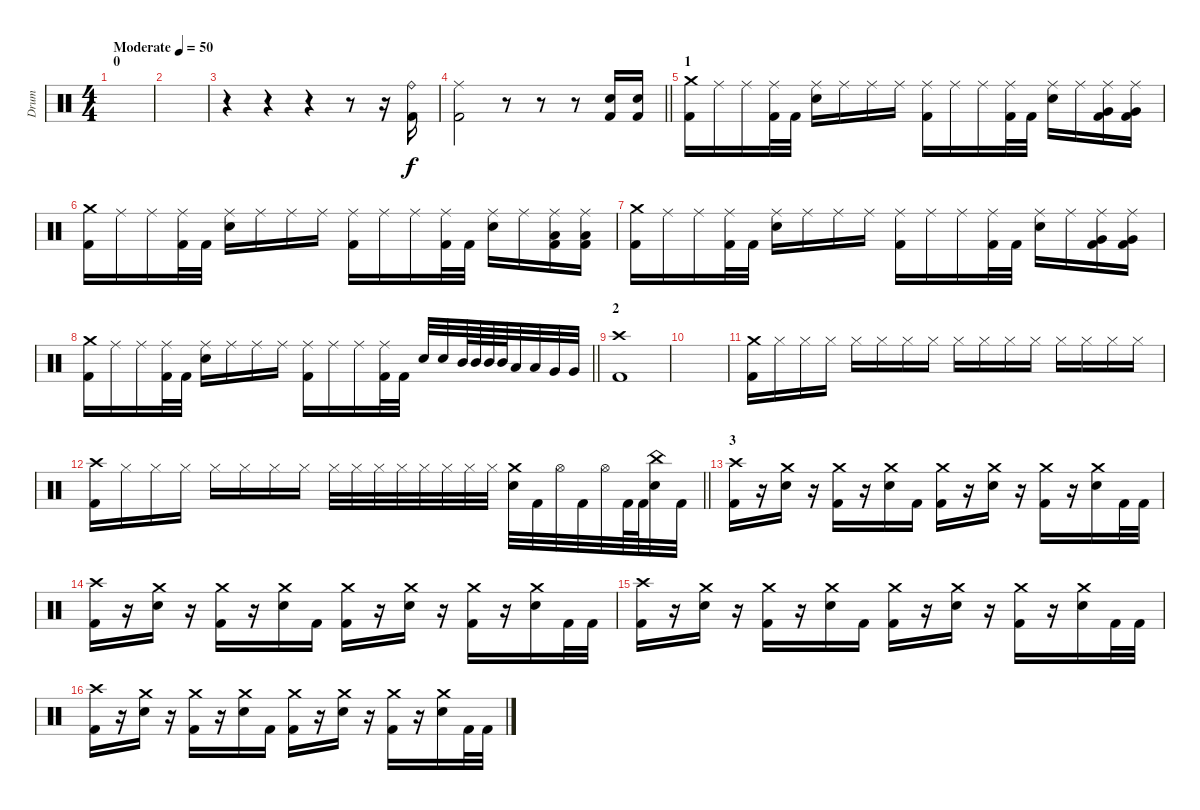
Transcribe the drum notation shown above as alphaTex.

\track ("Drum " "Drum ") {instrument percussion}
\staff {score}
\articulation defaults
\ts (4 4)
\section ("" "0")
\tempo (50 "Moderate")
\clef neutral
\ks c
|
|
r.4 r.4 r.4 r.8 r.16 ("Ride (bell)" "Kick (hit) 2").16 |
\barLineRight lightlight
("Ride (middle)" "Kick (hit) 2").2 r.8 r.8 r.8 ("Electric Snare (hit)" "Kick (hit) 2").16 ("Electric Snare (hit)" "Kick (hit) 2").16 |
\section ("" "1")
("Crash medium (hit)" "Kick (hit) 2").16 "Ride (middle)".16 "Ride (middle)".16 ("Ride (middle)" "Kick (hit) 2").32 "Kick (hit) 2".32 ("Ride (middle)" "Electric Snare (hit)").16 "Ride (middle)".16 "Ride (middle)".16 "Ride (middle)".16 ("Ride (middle)" "Kick (hit) 2").16 "Ride (middle)".16 "Ride (middle)".16 ("Ride (middle)" "Kick (hit) 2").32 "Kick (hit) 2".32 ("Ride (middle)" "Electric Snare (hit)").16 "Ride (middle)".16 ("Ride (middle)" "Very Low Tom (hit)" "Kick (hit) 2").16 ("Ride (middle)" "Very Low Tom (hit)" "Kick (hit) 2").16 |
("Crash medium (hit)" "Kick (hit) 2").16 "Ride (middle)".16 "Ride (middle)".16 ("Ride (middle)" "Kick (hit) 2").32 "Kick (hit) 2".32 ("Ride (middle)" "Electric Snare (hit)").16 "Ride (middle)".16 "Ride (middle)".16 "Ride (middle)".16 ("Ride (middle)" "Kick (hit) 2").16 "Ride (middle)".16 "Ride (middle)".16 ("Ride (middle)" "Kick (hit) 2").32 "Kick (hit) 2".32 ("Ride (middle)" "Electric Snare (hit)").16 "Ride (middle)".16 ("Ride (middle)" "Low Floor Tom (hit)" "Kick (hit) 2").16 ("Ride (middle)" "Low Floor Tom (hit)" "Kick (hit) 2").16 |
("Crash medium (hit)" "Kick (hit) 2").16 "Ride (middle)".16 "Ride (middle)".16 ("Ride (middle)" "Kick (hit) 2").32 "Kick (hit) 2".32 ("Ride (middle)" "Electric Snare (hit)").16 "Ride (middle)".16 "Ride (middle)".16 "Ride (middle)".16 ("Ride (middle)" "Kick (hit) 2").16 "Ride (middle)".16 "Ride (middle)".16 ("Ride (middle)" "Kick (hit) 2").32 "Kick (hit) 2".32 ("Ride (middle)" "Electric Snare (hit)").16 "Ride (middle)".16 ("Ride (middle)" "Very Low Tom (hit)" "Kick (hit) 2").16 ("Ride (middle)" "Very Low Tom (hit)" "Kick (hit) 2").16 |
\barLineRight lightlight
("Crash medium (hit)" "Kick (hit) 2").16 "Ride (middle)".16 "Ride (middle)".16 ("Ride (middle)" "Kick (hit) 2").32 "Kick (hit) 2".32 ("Ride (middle)" "Electric Snare (hit)").16 "Ride (middle)".16 "Ride (middle)".16 "Ride (middle)".16 ("Ride (middle)" "Kick (hit) 2").16 "Ride (middle)".16 "Ride (middle)".16 ("Ride (middle)" "Kick (hit) 2").32 "Kick (hit) 2".32 "Electric Snare (hit)".32 "Electric Snare (hit)".32 "Mid Tom (hit)".64 "Mid Tom (hit)".64 "Mid Tom (hit)".64 "Mid Tom (hit)".64 "Low Tom (hit)".32 "Low Tom (hit)".32 "Very Low Tom (hit)".32 "Very Low Tom (hit)".32 |
\section ("" "2")
("Crash high (hit)" "Kick (hit) 2").1 |
|
("Crash medium (hit)" "Kick (hit) 2").16 "Hi-Hat (closed)".16 "Hi-Hat (closed)".16 "Hi-Hat (closed)".16 "Hi-Hat (closed)".16 "Hi-Hat (closed)".16 "Hi-Hat (closed)".16 "Hi-Hat (closed)".16 "Hi-Hat (closed)".16 "Hi-Hat (closed)".16 "Hi-Hat (closed)".16 "Hi-Hat (closed)".16 "Hi-Hat (closed)".16 "Hi-Hat (closed)".16 "Hi-Hat (closed)".16 "Hi-Hat (closed)".16 |
\barLineRight lightlight
("Crash high (hit)" "Kick (hit) 2").16 "Hi-Hat (closed)".16 "Hi-Hat (closed)".16 "Hi-Hat (closed)".16 "Hi-Hat (closed)".16 "Hi-Hat (closed)".16 "Hi-Hat (closed)".16 "Hi-Hat (closed)".16 "Hi-Hat (closed)".32 "Hi-Hat (closed)".32 "Hi-Hat (closed)".32 "Hi-Hat (closed)".32 "Hi-Hat (closed)".32 "Hi-Hat (closed)".32 "Hi-Hat (closed)".32 "Hi-Hat (closed)".32 ("Crash medium (hit)" "Electric Snare (hit)").32 "Kick (hit) 2".32 "Hi-Hat (open)".32 "Kick (hit) 2".32 "Hi-Hat (open)".32 "Kick (hit) 2".64 "Kick (hit) 2".64 ("China (hit)" "Electric Snare (hit)").32 "Kick (hit) 2".32 |
\section ("" "3")
("Crash high (hit)" "Kick (hit) 2").16 r.16 ("Crash medium (hit)" "Electric Snare (hit)").16 r.16 ("Crash medium (hit)" "Kick (hit) 2").16 r.16 ("Crash medium (hit)" "Electric Snare (hit)").16 "Kick (hit) 2".16 ("Crash medium (hit)" "Kick (hit) 2").16 r.16 ("Crash medium (hit)" "Electric Snare (hit)").16 r.16 ("Crash medium (hit)" "Kick (hit) 2").16 r.16 ("Crash medium (hit)" "Electric Snare (hit)").16 "Kick (hit) 2".32 "Kick (hit) 2".32 |
("Crash high (hit)" "Kick (hit) 2").16 r.16 ("Crash medium (hit)" "Electric Snare (hit)").16 r.16 ("Crash medium (hit)" "Kick (hit) 2").16 r.16 ("Crash medium (hit)" "Electric Snare (hit)").16 "Kick (hit) 2".16 ("Crash medium (hit)" "Kick (hit) 2").16 r.16 ("Crash medium (hit)" "Electric Snare (hit)").16 r.16 ("Crash medium (hit)" "Kick (hit) 2").16 r.16 ("Crash medium (hit)" "Electric Snare (hit)").16 "Kick (hit) 2".32 "Kick (hit) 2".32 |
("Crash high (hit)" "Kick (hit) 2").16 r.16 ("Crash medium (hit)" "Electric Snare (hit)").16 r.16 ("Crash medium (hit)" "Kick (hit) 2").16 r.16 ("Crash medium (hit)" "Electric Snare (hit)").16 "Kick (hit) 2".16 ("Crash medium (hit)" "Kick (hit) 2").16 r.16 ("Crash medium (hit)" "Electric Snare (hit)").16 r.16 ("Crash medium (hit)" "Kick (hit) 2").16 r.16 ("Crash medium (hit)" "Electric Snare (hit)").16 "Kick (hit) 2".32 "Kick (hit) 2".32 |
("Crash high (hit)" "Kick (hit) 2").16 r.16 ("Crash medium (hit)" "Electric Snare (hit)").16 r.16 ("Crash medium (hit)" "Kick (hit) 2").16 r.16 ("Crash medium (hit)" "Electric Snare (hit)").16 "Kick (hit) 2".16 ("Crash medium (hit)" "Kick (hit) 2").16 r.16 ("Crash medium (hit)" "Electric Snare (hit)").16 r.16 ("Crash medium (hit)" "Kick (hit) 2").16 r.16 ("Crash medium (hit)" "Electric Snare (hit)").16 "Kick (hit) 2".32 "Kick (hit) 2".32
